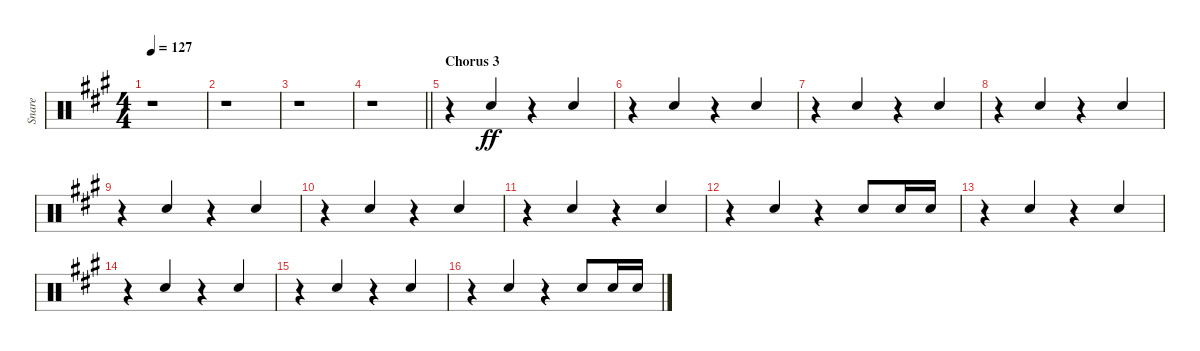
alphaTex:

\track ("Snare" "Snare") {instrument percussion}
\staff {score}
\articulation defaults
\ts (4 4)
\tempo 127
\clef neutral
\ks a
r.1{dy ff} |
r.1 |
r.1 |
\barLineRight lightlight
r.1 |
\section ("" "Chorus 3")
r.4{beam merge} "Electric Snare (hit)".4{beam Up} r.4{beam merge} "Electric Snare (hit)".4{beam Up} |
r.4{beam merge} "Electric Snare (hit)".4{beam Up} r.4{beam merge} "Electric Snare (hit)".4{beam Up} |
r.4{beam merge} "Electric Snare (hit)".4{beam Up} r.4{beam merge} "Electric Snare (hit)".4{beam Up} |
r.4{beam merge} "Electric Snare (hit)".4{beam Up} r.4{beam merge} "Electric Snare (hit)".4{beam Up} |
r.4{beam merge} "Electric Snare (hit)".4{beam Up} r.4{beam merge} "Electric Snare (hit)".4{beam Up} |
r.4{beam merge} "Electric Snare (hit)".4{beam Up} r.4{beam merge} "Electric Snare (hit)".4{beam Up} |
r.4{beam merge} "Electric Snare (hit)".4{beam Up} r.4{beam merge} "Electric Snare (hit)".4{beam Up} |
r.4 "Electric Snare (hit)".4{beam Up} r.4 "Electric Snare (hit)".8{beam Up} "Electric Snare (hit)".16{volume 6 beam Up} "Electric Snare (hit)".16{beam Up} |
r.4{beam merge} "Electric Snare (hit)".4{volume 13 beam Up} r.4{beam merge} "Electric Snare (hit)".4{beam Up} |
r.4{beam merge} "Electric Snare (hit)".4{beam Up} r.4{beam merge} "Electric Snare (hit)".4{beam Up} |
r.4 "Electric Snare (hit)".4{beam Up} r.4 "Electric Snare (hit)".4{beam Up} |
r.4 "Electric Snare (hit)".4{beam Up} r.4 "Electric Snare (hit)".8{beam Up} "Electric Snare (hit)".16{volume 6 beam Up} "Electric Snare (hit)".16{beam Up}
